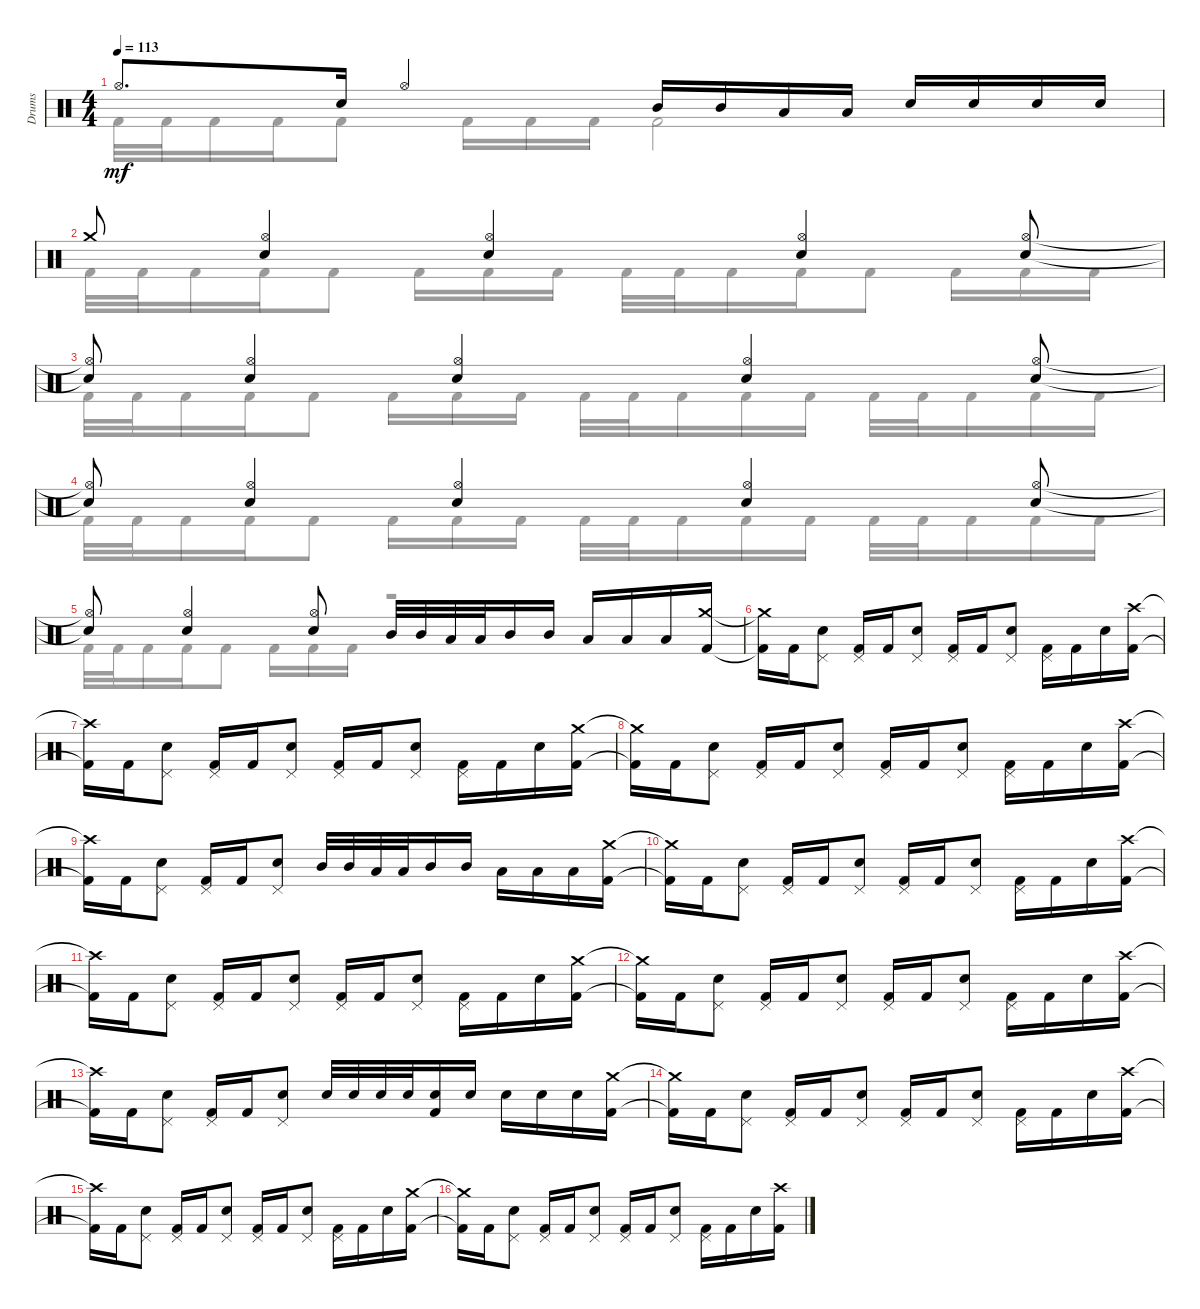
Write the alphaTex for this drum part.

\track ("Drums" "Drums") {instrument percussion}
\staff {score}
\articulation defaults
\voice
\ts (4 4)
\tempo 113
\clef neutral
\ks c "Hi-Hat (open)".8{d dy mf} "Snare (hit) 2".16 "Hi-Hat (open)".4 "Mid Tom (hit)".16 "Mid Tom (hit)".16 "Low Tom (hit)".16 "Low Tom (hit)".16 "Snare (hit) 2".16 "Snare (hit) 2".16 "Snare (hit) 2".16 "Snare (hit) 2".16
|
"Crash medium (hit)".8 ("Hi-Hat (open)" "Snare (hit) 2").4 ("Hi-Hat (open)" "Snare (hit) 2").4 ("Hi-Hat (open)" "Snare (hit) 2").4 ("Hi-Hat (open)" "Snare (hit) 2").8 |
("Hi-Hat (open)"{t} "Snare (hit) 2"{t}).8 ("Hi-Hat (open)" "Snare (hit) 2").4 ("Hi-Hat (open)" "Snare (hit) 2").4 ("Hi-Hat (open)" "Snare (hit) 2").4 ("Hi-Hat (open)" "Snare (hit) 2").8 |
("Hi-Hat (open)"{t} "Snare (hit) 2"{t}).8 ("Hi-Hat (open)" "Snare (hit) 2").4 ("Hi-Hat (open)" "Snare (hit) 2").4 ("Hi-Hat (open)" "Snare (hit) 2").4 ("Hi-Hat (open)" "Snare (hit) 2").8 |
("Hi-Hat (open)"{t} "Snare (hit) 2"{t}).8 ("Hi-Hat (open)" "Snare (hit) 2").4 ("Hi-Hat (open)" "Snare (hit) 2").8 "Mid Tom (hit)".32 "Mid Tom (hit)".32 "Low Tom (hit)".32 "Low Tom (hit)".32 "Mid Tom (hit)".16 "Mid Tom (hit)".16 "Low Tom (hit)".16 "Low Tom (hit)".16 "Low Tom (hit)".16 ("Crash medium (hit)" "Kick (hit) 2").16 |
("Crash medium (hit)"{t} "Kick (hit) 2"{t}).16 "Kick (hit) 2".16 ("Pedal Hi-Hat (hit)" "Snare (hit) 2").8 ("Pedal Hi-Hat (hit)" "Kick (hit) 2").16 "Kick (hit) 2".16 ("Pedal Hi-Hat (hit)" "Snare (hit) 2").8 ("Pedal Hi-Hat (hit)" "Kick (hit) 2").16 "Kick (hit) 2".16 ("Pedal Hi-Hat (hit)" "Snare (hit) 2").8 ("Pedal Hi-Hat (hit)" "Kick (hit) 2").16 "Kick (hit) 2".16 "Snare (hit) 2".16 ("Crash high (hit)" "Kick (hit) 2").16 |
("Crash high (hit)"{t} "Kick (hit) 2"{t}).16 "Kick (hit) 2".16 ("Pedal Hi-Hat (hit)" "Snare (hit) 2").8 ("Pedal Hi-Hat (hit)" "Kick (hit) 2").16 "Kick (hit) 2".16 ("Pedal Hi-Hat (hit)" "Snare (hit) 2").8 ("Pedal Hi-Hat (hit)" "Kick (hit) 2").16 "Kick (hit) 2".16 ("Pedal Hi-Hat (hit)" "Snare (hit) 2").8 ("Pedal Hi-Hat (hit)" "Kick (hit) 2").16 "Kick (hit) 2".16 "Snare (hit) 2".16 ("Crash medium (hit)" "Kick (hit) 2").16 |
("Crash medium (hit)"{t} "Kick (hit) 2"{t}).16 "Kick (hit) 2".16 ("Pedal Hi-Hat (hit)" "Snare (hit) 2").8 ("Pedal Hi-Hat (hit)" "Kick (hit) 2").16 "Kick (hit) 2".16 ("Pedal Hi-Hat (hit)" "Snare (hit) 2").8 ("Pedal Hi-Hat (hit)" "Kick (hit) 2").16 "Kick (hit) 2".16 ("Pedal Hi-Hat (hit)" "Snare (hit) 2").8 ("Pedal Hi-Hat (hit)" "Kick (hit) 2").16 "Kick (hit) 2".16 "Snare (hit) 2".16 ("Crash high (hit)" "Kick (hit) 2").16 |
("Crash high (hit)"{t} "Kick (hit) 2"{t}).16 "Kick (hit) 2".16 ("Pedal Hi-Hat (hit)" "Snare (hit) 2").8 ("Pedal Hi-Hat (hit)" "Kick (hit) 2").16 "Kick (hit) 2".16 ("Pedal Hi-Hat (hit)" "Snare (hit) 2").8 "Mid Tom (hit)".32 "Mid Tom (hit)".32 "Low Tom (hit)".32 "Low Tom (hit)".32 "Mid Tom (hit)".16 "Mid Tom (hit)".16 "Low Tom (hit)".16 "Low Tom (hit)".16 "Low Tom (hit)".16 ("Crash medium (hit)" "Kick (hit) 2").16 |
("Crash medium (hit)"{t} "Kick (hit) 2"{t}).16 "Kick (hit) 2".16 ("Pedal Hi-Hat (hit)" "Snare (hit) 2").8 ("Pedal Hi-Hat (hit)" "Kick (hit) 2").16 "Kick (hit) 2".16 ("Pedal Hi-Hat (hit)" "Snare (hit) 2").8 ("Pedal Hi-Hat (hit)" "Kick (hit) 2").16 "Kick (hit) 2".16 ("Pedal Hi-Hat (hit)" "Snare (hit) 2").8 ("Pedal Hi-Hat (hit)" "Kick (hit) 2").16 "Kick (hit) 2".16 "Snare (hit) 2".16 ("Crash high (hit)" "Kick (hit) 2").16 |
("Crash high (hit)"{t} "Kick (hit) 2"{t}).16 "Kick (hit) 2".16 ("Pedal Hi-Hat (hit)" "Snare (hit) 2").8 ("Pedal Hi-Hat (hit)" "Kick (hit) 2").16 "Kick (hit) 2".16 ("Pedal Hi-Hat (hit)" "Snare (hit) 2").8 ("Pedal Hi-Hat (hit)" "Kick (hit) 2").16 "Kick (hit) 2".16 ("Pedal Hi-Hat (hit)" "Snare (hit) 2").8 ("Pedal Hi-Hat (hit)" "Kick (hit) 2").16 "Kick (hit) 2".16 "Snare (hit) 2".16 ("Crash medium (hit)" "Kick (hit) 2").16 |
("Crash medium (hit)"{t} "Kick (hit) 2"{t}).16 "Kick (hit) 2".16 ("Pedal Hi-Hat (hit)" "Snare (hit) 2").8 ("Pedal Hi-Hat (hit)" "Kick (hit) 2").16 "Kick (hit) 2".16 ("Pedal Hi-Hat (hit)" "Snare (hit) 2").8 ("Pedal Hi-Hat (hit)" "Kick (hit) 2").16 "Kick (hit) 2".16 ("Pedal Hi-Hat (hit)" "Snare (hit) 2").8 ("Pedal Hi-Hat (hit)" "Kick (hit) 2").16 "Kick (hit) 2".16 "Snare (hit) 2".16 ("Crash high (hit)" "Kick (hit) 2").16 |
("Crash high (hit)"{t} "Kick (hit) 2"{t}).16 "Kick (hit) 2".16 ("Pedal Hi-Hat (hit)" "Snare (hit) 2").8 ("Pedal Hi-Hat (hit)" "Kick (hit) 2").16 "Kick (hit) 2".16 ("Pedal Hi-Hat (hit)" "Snare (hit) 2").8 "Snare (hit) 2".32 "Snare (hit) 2".32 "Snare (hit) 2".32 "Snare (hit) 2".32 ("Snare (hit) 2" "Kick (hit) 2").16 "Snare (hit) 2".16 "Snare (hit) 2".16 "Snare (hit) 2".16 "Snare (hit) 2".16 ("Crash medium (hit)" "Kick (hit) 2").16 |
("Crash medium (hit)"{t} "Kick (hit) 2"{t}).16 "Kick (hit) 2".16 ("Pedal Hi-Hat (hit)" "Snare (hit) 2").8 ("Pedal Hi-Hat (hit)" "Kick (hit) 2").16 "Kick (hit) 2".16 ("Pedal Hi-Hat (hit)" "Snare (hit) 2").8 ("Pedal Hi-Hat (hit)" "Kick (hit) 2").16 "Kick (hit) 2".16 ("Pedal Hi-Hat (hit)" "Snare (hit) 2").8 ("Pedal Hi-Hat (hit)" "Kick (hit) 2").16 "Kick (hit) 2".16 "Snare (hit) 2".16 ("Crash high (hit)" "Kick (hit) 2").16 |
("Crash high (hit)"{t} "Kick (hit) 2"{t}).16 "Kick (hit) 2".16 ("Pedal Hi-Hat (hit)" "Snare (hit) 2").8 ("Pedal Hi-Hat (hit)" "Kick (hit) 2").16 "Kick (hit) 2".16 ("Pedal Hi-Hat (hit)" "Snare (hit) 2").8 ("Pedal Hi-Hat (hit)" "Kick (hit) 2").16 "Kick (hit) 2".16 ("Pedal Hi-Hat (hit)" "Snare (hit) 2").8 ("Pedal Hi-Hat (hit)" "Kick (hit) 2").16 "Kick (hit) 2".16 "Snare (hit) 2".16 ("Crash medium (hit)" "Kick (hit) 2").16 |
("Crash medium (hit)"{t} "Kick (hit) 2"{t}).16 "Kick (hit) 2".16 ("Pedal Hi-Hat (hit)" "Snare (hit) 2").8 ("Pedal Hi-Hat (hit)" "Kick (hit) 2").16 "Kick (hit) 2".16 ("Pedal Hi-Hat (hit)" "Snare (hit) 2").8 ("Pedal Hi-Hat (hit)" "Kick (hit) 2").16 "Kick (hit) 2".16 ("Pedal Hi-Hat (hit)" "Snare (hit) 2").8 ("Pedal Hi-Hat (hit)" "Kick (hit) 2").16 "Kick (hit) 2".16 "Snare (hit) 2".16 ("Crash high (hit)" "Kick (hit) 2").16
\voice
\clef neutral
\ottava regular
\simile none
\ks c "Kick (hit) 2".32{dy mf} "Kick (hit) 2".32 "Kick (hit) 2".16 "Kick (hit) 2".16 "Kick (hit) 2".8 "Kick (hit) 2".16 "Kick (hit) 2".16 "Kick (hit) 2".16 "Kick (hit) 2".2
|
"Kick (hit) 2".32 "Kick (hit) 2".32 "Kick (hit) 2".16 "Kick (hit) 2".16 "Kick (hit) 2".8 "Kick (hit) 2".16 "Kick (hit) 2".16 "Kick (hit) 2".16 "Kick (hit) 2".32 "Kick (hit) 2".32 "Kick (hit) 2".16 "Kick (hit) 2".16 "Kick (hit) 2".8 "Kick (hit) 2".16 "Kick (hit) 2".16 "Kick (hit) 2".16 |
"Kick (hit) 2".32 "Kick (hit) 2".32 "Kick (hit) 2".16 "Kick (hit) 2".16 "Kick (hit) 2".8 "Kick (hit) 2".16 "Kick (hit) 2".16 "Kick (hit) 2".16 "Kick (hit) 2".32 "Kick (hit) 2".32 "Kick (hit) 2".16 "Kick (hit) 2".16 "Kick (hit) 2".16 "Kick (hit) 2".32 "Kick (hit) 2".32 "Kick (hit) 2".16 "Kick (hit) 2".16 "Kick (hit) 2".16 |
"Kick (hit) 2".32 "Kick (hit) 2".32 "Kick (hit) 2".16 "Kick (hit) 2".16 "Kick (hit) 2".8 "Kick (hit) 2".16 "Kick (hit) 2".16 "Kick (hit) 2".16 "Kick (hit) 2".32 "Kick (hit) 2".32 "Kick (hit) 2".16 "Kick (hit) 2".16 "Kick (hit) 2".16 "Kick (hit) 2".32 "Kick (hit) 2".32 "Kick (hit) 2".16 "Kick (hit) 2".16 "Kick (hit) 2".16 |
"Kick (hit) 2".32 "Kick (hit) 2".32 "Kick (hit) 2".16 "Kick (hit) 2".16 "Kick (hit) 2".8 "Kick (hit) 2".16 "Kick (hit) 2".16 "Kick (hit) 2".16 r.2 |
|
|
|
|
|
|
|
|
|
|
